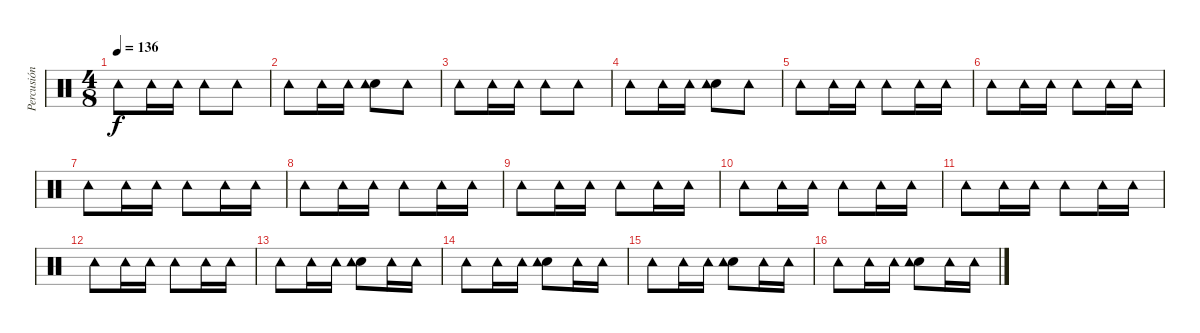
\track ("Percusión" "Percusión") {instrument percussion}
\staff {score}
\articulation defaults
\ts (4 8)
\tempo 136
\clef neutral
\ks c "Tambourine (hit)".8{dy f} "Tambourine (hit)".16 "Tambourine (hit)".16 "Tambourine (hit)".8 "Tambourine (hit)".8
|
"Tambourine (hit)".8 "Tambourine (hit)".16 "Tambourine (hit)".16 ("Electric Snare (hit)" "Tambourine (hit)").8 "Tambourine (hit)".8 |
"Tambourine (hit)".8 "Tambourine (hit)".16 "Tambourine (hit)".16 "Tambourine (hit)".8 "Tambourine (hit)".8 |
"Tambourine (hit)".8 "Tambourine (hit)".16 "Tambourine (hit)".16 ("Electric Snare (hit)" "Tambourine (hit)").8 "Tambourine (hit)".8 |
"Tambourine (hit)".8 "Tambourine (hit)".16 "Tambourine (hit)".16 "Tambourine (hit)".8 "Tambourine (hit)".16 "Tambourine (hit)".16 |
"Tambourine (hit)".8 "Tambourine (hit)".16 "Tambourine (hit)".16 "Tambourine (hit)".8 "Tambourine (hit)".16 "Tambourine (hit)".16 |
"Tambourine (hit)".8 "Tambourine (hit)".16 "Tambourine (hit)".16 "Tambourine (hit)".8 "Tambourine (hit)".16 "Tambourine (hit)".16 |
"Tambourine (hit)".8 "Tambourine (hit)".16 "Tambourine (hit)".16 "Tambourine (hit)".8 "Tambourine (hit)".16 "Tambourine (hit)".16 |
"Tambourine (hit)".8 "Tambourine (hit)".16 "Tambourine (hit)".16 "Tambourine (hit)".8 "Tambourine (hit)".16 "Tambourine (hit)".16 |
"Tambourine (hit)".8 "Tambourine (hit)".16 "Tambourine (hit)".16 "Tambourine (hit)".8 "Tambourine (hit)".16 "Tambourine (hit)".16 |
"Tambourine (hit)".8 "Tambourine (hit)".16 "Tambourine (hit)".16 "Tambourine (hit)".8 "Tambourine (hit)".16 "Tambourine (hit)".16 |
"Tambourine (hit)".8 "Tambourine (hit)".16 "Tambourine (hit)".16 "Tambourine (hit)".8 "Tambourine (hit)".16 "Tambourine (hit)".16 |
"Tambourine (hit)".8 "Tambourine (hit)".16 "Tambourine (hit)".16 ("Electric Snare (hit)" "Tambourine (hit)").8 "Tambourine (hit)".16 "Tambourine (hit)".16 |
"Tambourine (hit)".8 "Tambourine (hit)".16 "Tambourine (hit)".16 ("Electric Snare (hit)" "Tambourine (hit)").8 "Tambourine (hit)".16 "Tambourine (hit)".16 |
"Tambourine (hit)".8 "Tambourine (hit)".16 "Tambourine (hit)".16 ("Electric Snare (hit)" "Tambourine (hit)").8 "Tambourine (hit)".16 "Tambourine (hit)".16 |
"Tambourine (hit)".8 "Tambourine (hit)".16 "Tambourine (hit)".16 ("Electric Snare (hit)" "Tambourine (hit)").8 "Tambourine (hit)".16 "Tambourine (hit)".16
